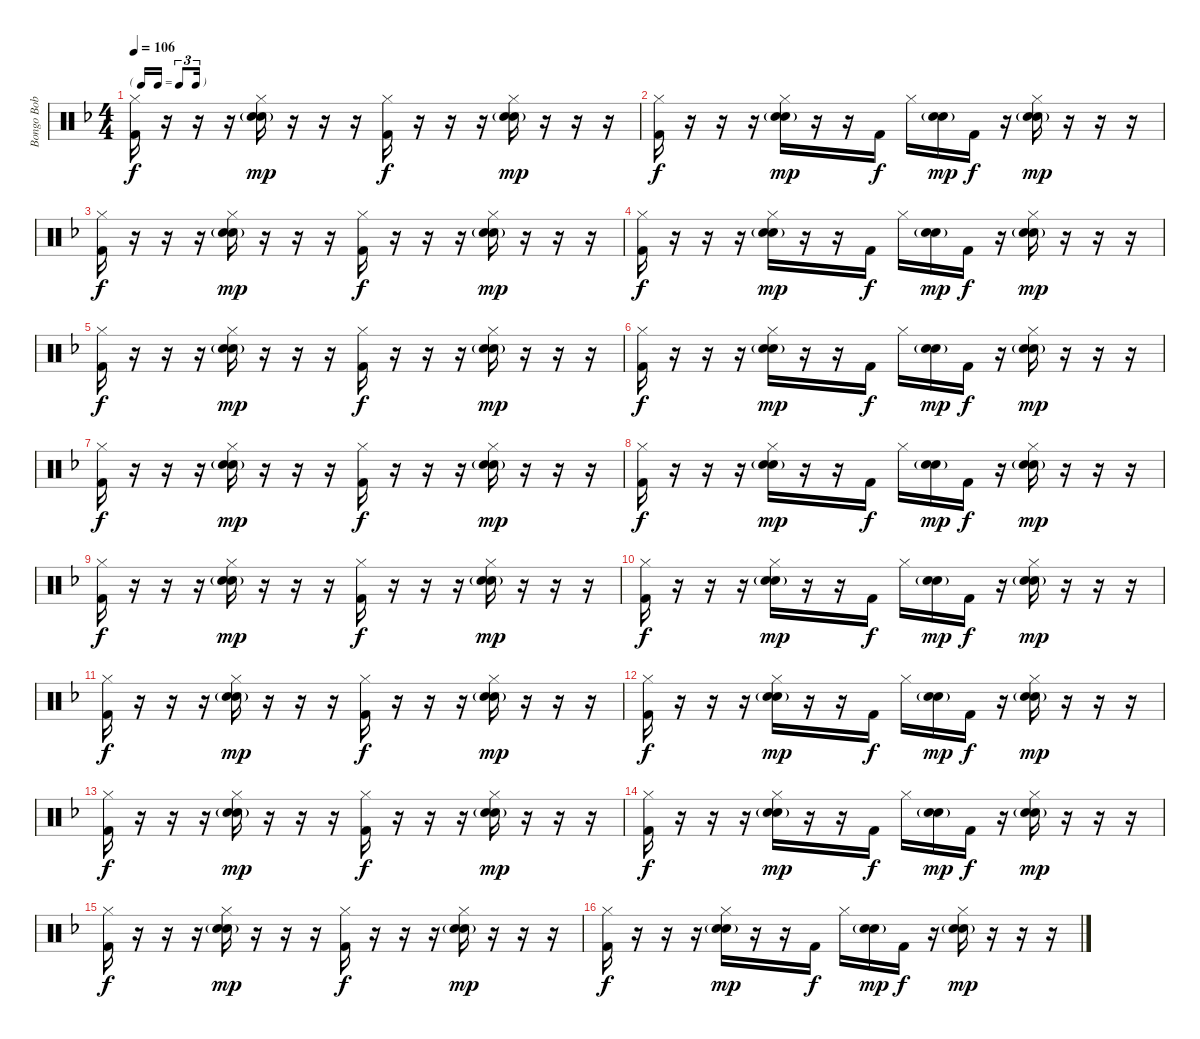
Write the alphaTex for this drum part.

\track ("Bongo Bob Smith (Drums)" "Bongo Bob ") {instrument percussion}
\staff {score}
\articulation defaults
\ts (4 4)
\tf triplet16th
\tempo 106
\clef neutral
\ks f
("Hi-Hat (closed)" "Kick (hit) 2").16{dy f} r.16 r.16 r.16 ("Hi-Hat (closed)" "Snare (hit) 2"{g} "Electric Snare (hit)").16{dy mp} r.16 r.16 r.16 ("Hi-Hat (closed)" "Kick (hit) 2").16{dy f} r.16 r.16 r.16 ("Hi-Hat (closed)" "Snare (hit) 2"{g} "Electric Snare (hit)").16{dy mp} r.16 r.16 r.16 |
("Hi-Hat (closed)" "Kick (hit) 2").16{dy f} r.16 r.16 r.16 ("Hi-Hat (closed)" "Snare (hit) 2"{g} "Electric Snare (hit)").16{dy mp} r.16 r.16 "Kick (hit) 2".16{dy f} "Hi-Hat (closed)".16 ("Snare (hit) 2"{g} "Electric Snare (hit)").16{dy mp} "Kick (hit) 2".16{dy f} r.16 ("Hi-Hat (closed)" "Snare (hit) 2"{g} "Electric Snare (hit)").16{dy mp} r.16 r.16 r.16 |
("Hi-Hat (closed)" "Kick (hit) 2").16{dy f} r.16 r.16 r.16 ("Hi-Hat (closed)" "Snare (hit) 2"{g} "Electric Snare (hit)").16{dy mp} r.16 r.16 r.16 ("Hi-Hat (closed)" "Kick (hit) 2").16{dy f} r.16 r.16 r.16 ("Hi-Hat (closed)" "Snare (hit) 2"{g} "Electric Snare (hit)").16{dy mp} r.16 r.16 r.16 |
("Hi-Hat (closed)" "Kick (hit) 2").16{dy f} r.16 r.16 r.16 ("Hi-Hat (closed)" "Snare (hit) 2"{g} "Electric Snare (hit)").16{dy mp} r.16 r.16 "Kick (hit) 2".16{dy f} "Hi-Hat (closed)".16 ("Snare (hit) 2"{g} "Electric Snare (hit)").16{dy mp} "Kick (hit) 2".16{dy f} r.16 ("Hi-Hat (closed)" "Snare (hit) 2"{g} "Electric Snare (hit)").16{dy mp} r.16 r.16 r.16 |
("Hi-Hat (closed)" "Kick (hit) 2").16{dy f} r.16 r.16 r.16 ("Hi-Hat (closed)" "Snare (hit) 2"{g} "Electric Snare (hit)").16{dy mp} r.16 r.16 r.16 ("Hi-Hat (closed)" "Kick (hit) 2").16{dy f} r.16 r.16 r.16 ("Hi-Hat (closed)" "Snare (hit) 2"{g} "Electric Snare (hit)").16{dy mp} r.16 r.16 r.16 |
("Hi-Hat (closed)" "Kick (hit) 2").16{dy f} r.16 r.16 r.16 ("Hi-Hat (closed)" "Snare (hit) 2"{g} "Electric Snare (hit)").16{dy mp} r.16 r.16 "Kick (hit) 2".16{dy f} "Hi-Hat (closed)".16 ("Snare (hit) 2"{g} "Electric Snare (hit)").16{dy mp} "Kick (hit) 2".16{dy f} r.16 ("Hi-Hat (closed)" "Snare (hit) 2"{g} "Electric Snare (hit)").16{dy mp} r.16 r.16 r.16 |
("Hi-Hat (closed)" "Kick (hit) 2").16{dy f} r.16 r.16 r.16 ("Hi-Hat (closed)" "Snare (hit) 2"{g} "Electric Snare (hit)").16{dy mp} r.16 r.16 r.16 ("Hi-Hat (closed)" "Kick (hit) 2").16{dy f} r.16 r.16 r.16 ("Hi-Hat (closed)" "Snare (hit) 2"{g} "Electric Snare (hit)").16{dy mp} r.16 r.16 r.16 |
("Hi-Hat (closed)" "Kick (hit) 2").16{dy f} r.16 r.16 r.16 ("Hi-Hat (closed)" "Snare (hit) 2"{g} "Electric Snare (hit)").16{dy mp} r.16 r.16 "Kick (hit) 2".16{dy f} "Hi-Hat (closed)".16 ("Snare (hit) 2"{g} "Electric Snare (hit)").16{dy mp} "Kick (hit) 2".16{dy f} r.16 ("Hi-Hat (closed)" "Snare (hit) 2"{g} "Electric Snare (hit)").16{dy mp} r.16 r.16 r.16 |
("Hi-Hat (closed)" "Kick (hit) 2").16{dy f} r.16 r.16 r.16 ("Hi-Hat (closed)" "Snare (hit) 2"{g} "Electric Snare (hit)").16{dy mp} r.16 r.16 r.16 ("Hi-Hat (closed)" "Kick (hit) 2").16{dy f} r.16 r.16 r.16 ("Hi-Hat (closed)" "Snare (hit) 2"{g} "Electric Snare (hit)").16{dy mp} r.16 r.16 r.16 |
("Hi-Hat (closed)" "Kick (hit) 2").16{dy f} r.16 r.16 r.16 ("Hi-Hat (closed)" "Snare (hit) 2"{g} "Electric Snare (hit)").16{dy mp} r.16 r.16 "Kick (hit) 2".16{dy f} "Hi-Hat (closed)".16 ("Snare (hit) 2"{g} "Electric Snare (hit)").16{dy mp} "Kick (hit) 2".16{dy f} r.16 ("Hi-Hat (closed)" "Snare (hit) 2"{g} "Electric Snare (hit)").16{dy mp} r.16 r.16 r.16 |
("Hi-Hat (closed)" "Kick (hit) 2").16{dy f} r.16 r.16 r.16 ("Hi-Hat (closed)" "Snare (hit) 2"{g} "Electric Snare (hit)").16{dy mp} r.16 r.16 r.16 ("Hi-Hat (closed)" "Kick (hit) 2").16{dy f} r.16 r.16 r.16 ("Hi-Hat (closed)" "Snare (hit) 2"{g} "Electric Snare (hit)").16{dy mp} r.16 r.16 r.16 |
("Hi-Hat (closed)" "Kick (hit) 2").16{dy f} r.16 r.16 r.16 ("Hi-Hat (closed)" "Snare (hit) 2"{g} "Electric Snare (hit)").16{dy mp} r.16 r.16 "Kick (hit) 2".16{dy f} "Hi-Hat (closed)".16 ("Snare (hit) 2"{g} "Electric Snare (hit)").16{dy mp} "Kick (hit) 2".16{dy f} r.16 ("Hi-Hat (closed)" "Snare (hit) 2"{g} "Electric Snare (hit)").16{dy mp} r.16 r.16 r.16 |
("Hi-Hat (closed)" "Kick (hit) 2").16{dy f} r.16 r.16 r.16 ("Hi-Hat (closed)" "Snare (hit) 2"{g} "Electric Snare (hit)").16{dy mp} r.16 r.16 r.16 ("Hi-Hat (closed)" "Kick (hit) 2").16{dy f} r.16 r.16 r.16 ("Hi-Hat (closed)" "Snare (hit) 2"{g} "Electric Snare (hit)").16{dy mp} r.16 r.16 r.16 |
("Hi-Hat (closed)" "Kick (hit) 2").16{dy f} r.16 r.16 r.16 ("Hi-Hat (closed)" "Snare (hit) 2"{g} "Electric Snare (hit)").16{dy mp} r.16 r.16 "Kick (hit) 2".16{dy f} "Hi-Hat (closed)".16 ("Snare (hit) 2"{g} "Electric Snare (hit)").16{dy mp} "Kick (hit) 2".16{dy f} r.16 ("Hi-Hat (closed)" "Snare (hit) 2"{g} "Electric Snare (hit)").16{dy mp} r.16 r.16 r.16 |
("Hi-Hat (closed)" "Kick (hit) 2").16{dy f} r.16 r.16 r.16 ("Hi-Hat (closed)" "Snare (hit) 2"{g} "Electric Snare (hit)").16{dy mp} r.16 r.16 r.16 ("Hi-Hat (closed)" "Kick (hit) 2").16{dy f} r.16 r.16 r.16 ("Hi-Hat (closed)" "Snare (hit) 2"{g} "Electric Snare (hit)").16{dy mp} r.16 r.16 r.16 |
("Hi-Hat (closed)" "Kick (hit) 2").16{dy f} r.16 r.16 r.16 ("Hi-Hat (closed)" "Snare (hit) 2"{g} "Electric Snare (hit)").16{dy mp} r.16 r.16 "Kick (hit) 2".16{dy f} "Hi-Hat (closed)".16 ("Snare (hit) 2"{g} "Electric Snare (hit)").16{dy mp} "Kick (hit) 2".16{dy f} r.16 ("Hi-Hat (closed)" "Snare (hit) 2"{g} "Electric Snare (hit)").16{dy mp} r.16 r.16 r.16
